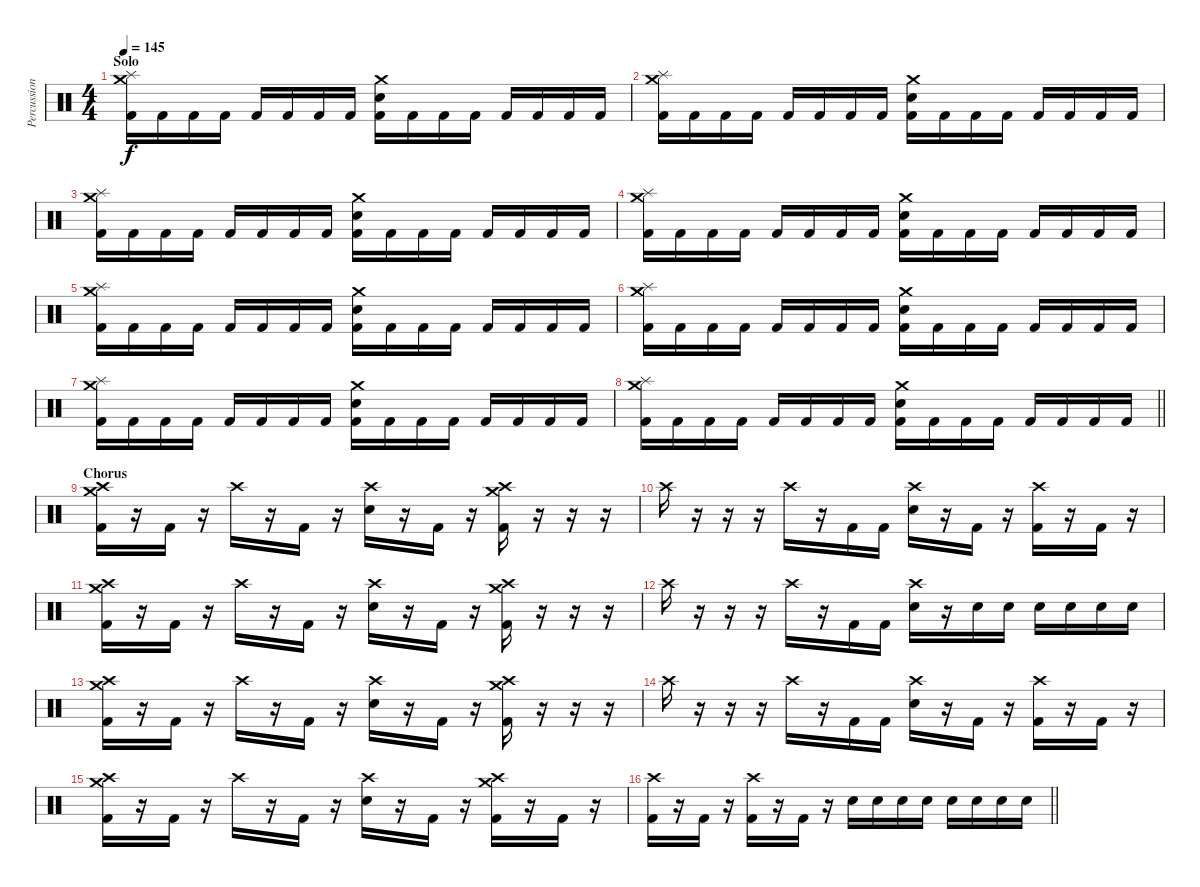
\track ("Percussion" "Percussion") {instrument percussion}
\staff {score}
\articulation defaults
\ts (4 4)
\section ("" "Solo")
\tempo 145
\clef neutral
\ks aminor
("Crash medium (hit)" "Splash (hit)" "Kick (hit) 2").16{dy f} "Kick (hit) 2".16 "Kick (hit) 2".16 "Kick (hit) 2".16 "Kick (hit) 2".16 "Kick (hit) 2".16 "Kick (hit) 2".16 "Kick (hit) 2".16 ("Crash medium (hit)" "Electric Snare (hit)" "Kick (hit) 2").16 "Kick (hit) 2".16 "Kick (hit) 2".16 "Kick (hit) 2".16 "Kick (hit) 2".16 "Kick (hit) 2".16 "Kick (hit) 2".16 "Kick (hit) 2".16 |
("Crash medium (hit)" "Splash (hit)" "Kick (hit) 2").16 "Kick (hit) 2".16 "Kick (hit) 2".16 "Kick (hit) 2".16 "Kick (hit) 2".16 "Kick (hit) 2".16 "Kick (hit) 2".16 "Kick (hit) 2".16 ("Crash medium (hit)" "Electric Snare (hit)" "Kick (hit) 2").16 "Kick (hit) 2".16 "Kick (hit) 2".16 "Kick (hit) 2".16 "Kick (hit) 2".16 "Kick (hit) 2".16 "Kick (hit) 2".16 "Kick (hit) 2".16 |
("Crash medium (hit)" "Splash (hit)" "Kick (hit) 2").16 "Kick (hit) 2".16 "Kick (hit) 2".16 "Kick (hit) 2".16 "Kick (hit) 2".16 "Kick (hit) 2".16 "Kick (hit) 2".16 "Kick (hit) 2".16 ("Crash medium (hit)" "Electric Snare (hit)" "Kick (hit) 2").16 "Kick (hit) 2".16 "Kick (hit) 2".16 "Kick (hit) 2".16 "Kick (hit) 2".16 "Kick (hit) 2".16 "Kick (hit) 2".16 "Kick (hit) 2".16 |
("Crash medium (hit)" "Splash (hit)" "Kick (hit) 2").16 "Kick (hit) 2".16 "Kick (hit) 2".16 "Kick (hit) 2".16 "Kick (hit) 2".16 "Kick (hit) 2".16 "Kick (hit) 2".16 "Kick (hit) 2".16 ("Crash medium (hit)" "Electric Snare (hit)" "Kick (hit) 2").16 "Kick (hit) 2".16 "Kick (hit) 2".16 "Kick (hit) 2".16 "Kick (hit) 2".16 "Kick (hit) 2".16 "Kick (hit) 2".16 "Kick (hit) 2".16 |
("Crash medium (hit)" "Splash (hit)" "Kick (hit) 2").16 "Kick (hit) 2".16 "Kick (hit) 2".16 "Kick (hit) 2".16 "Kick (hit) 2".16 "Kick (hit) 2".16 "Kick (hit) 2".16 "Kick (hit) 2".16 ("Crash medium (hit)" "Electric Snare (hit)" "Kick (hit) 2").16 "Kick (hit) 2".16 "Kick (hit) 2".16 "Kick (hit) 2".16 "Kick (hit) 2".16 "Kick (hit) 2".16 "Kick (hit) 2".16 "Kick (hit) 2".16 |
("Crash medium (hit)" "Splash (hit)" "Kick (hit) 2").16 "Kick (hit) 2".16 "Kick (hit) 2".16 "Kick (hit) 2".16 "Kick (hit) 2".16 "Kick (hit) 2".16 "Kick (hit) 2".16 "Kick (hit) 2".16 ("Crash medium (hit)" "Electric Snare (hit)" "Kick (hit) 2").16 "Kick (hit) 2".16 "Kick (hit) 2".16 "Kick (hit) 2".16 "Kick (hit) 2".16 "Kick (hit) 2".16 "Kick (hit) 2".16 "Kick (hit) 2".16 |
("Crash medium (hit)" "Splash (hit)" "Kick (hit) 2").16 "Kick (hit) 2".16 "Kick (hit) 2".16 "Kick (hit) 2".16 "Kick (hit) 2".16 "Kick (hit) 2".16 "Kick (hit) 2".16 "Kick (hit) 2".16 ("Crash medium (hit)" "Electric Snare (hit)" "Kick (hit) 2").16 "Kick (hit) 2".16 "Kick (hit) 2".16 "Kick (hit) 2".16 "Kick (hit) 2".16 "Kick (hit) 2".16 "Kick (hit) 2".16 "Kick (hit) 2".16 |
\barLineRight lightlight
("Crash medium (hit)" "Splash (hit)" "Kick (hit) 2").16 "Kick (hit) 2".16 "Kick (hit) 2".16 "Kick (hit) 2".16 "Kick (hit) 2".16 "Kick (hit) 2".16 "Kick (hit) 2".16 "Kick (hit) 2".16 ("Crash medium (hit)" "Electric Snare (hit)" "Kick (hit) 2").16 "Kick (hit) 2".16 "Kick (hit) 2".16 "Kick (hit) 2".16 "Kick (hit) 2".16 "Kick (hit) 2".16 "Kick (hit) 2".16 "Kick (hit) 2".16 |
\section ("" "Chorus")
("Crash high (hit)" "Crash medium (hit)" "Kick (hit) 2").16 r.16 "Kick (hit) 2".16 r.16 "Crash high (hit)".16 r.16 "Kick (hit) 2".16 r.16 ("Crash high (hit)" "Electric Snare (hit)").16 r.16 "Kick (hit) 2".16 r.16 ("Crash high (hit)" "Crash medium (hit)" "Kick (hit) 2").16 r.16 r.16 r.16 |
"Crash high (hit)".16 r.16 r.16 r.16 "Crash high (hit)".16 r.16 "Kick (hit) 2".16 "Kick (hit) 2".16 ("Crash high (hit)" "Electric Snare (hit)").16 r.16 "Kick (hit) 2".16 r.16 ("Crash high (hit)" "Kick (hit) 2").16 r.16 "Kick (hit) 2".16 r.16 |
("Crash high (hit)" "Crash medium (hit)" "Kick (hit) 2").16 r.16 "Kick (hit) 2".16 r.16 "Crash high (hit)".16 r.16 "Kick (hit) 2".16 r.16 ("Crash high (hit)" "Electric Snare (hit)").16 r.16 "Kick (hit) 2".16 r.16 ("Crash high (hit)" "Crash medium (hit)" "Kick (hit) 2").16 r.16 r.16 r.16 |
"Crash high (hit)".16 r.16 r.16 r.16 "Crash high (hit)".16 r.16 "Kick (hit) 2".16 "Kick (hit) 2".16 ("Crash high (hit)" "Electric Snare (hit)").16 r.16 "Electric Snare (hit)".16 "Electric Snare (hit)".16 "Electric Snare (hit)".16 "Electric Snare (hit)".16 "Electric Snare (hit)".16 "Electric Snare (hit)".16 |
("Crash high (hit)" "Crash medium (hit)" "Kick (hit) 2").16 r.16 "Kick (hit) 2".16 r.16 "Crash high (hit)".16 r.16 "Kick (hit) 2".16 r.16 ("Crash high (hit)" "Electric Snare (hit)").16 r.16 "Kick (hit) 2".16 r.16 ("Crash high (hit)" "Crash medium (hit)" "Kick (hit) 2").16 r.16 r.16 r.16 |
"Crash high (hit)".16 r.16 r.16 r.16 "Crash high (hit)".16 r.16 "Kick (hit) 2".16 "Kick (hit) 2".16 ("Crash high (hit)" "Electric Snare (hit)").16 r.16 "Kick (hit) 2".16 r.16 ("Crash high (hit)" "Kick (hit) 2").16 r.16 "Kick (hit) 2".16 r.16 |
("Crash high (hit)" "Crash medium (hit)" "Kick (hit) 2").16 r.16 "Kick (hit) 2".16 r.16 "Crash high (hit)".16 r.16 "Kick (hit) 2".16 r.16 ("Crash high (hit)" "Electric Snare (hit)").16 r.16 "Kick (hit) 2".16 r.16 ("Crash high (hit)" "Crash medium (hit)" "Kick (hit) 2").16 r.16 "Kick (hit) 2".16 r.16 |
\barLineRight lightlight
("Crash high (hit)" "Kick (hit) 2").16 r.16 "Kick (hit) 2".16 r.16 ("Crash high (hit)" "Kick (hit) 2").16 r.16 "Kick (hit) 2".16 r.16 "Electric Snare (hit)".16 "Electric Snare (hit)".16 "Electric Snare (hit)".16 "Electric Snare (hit)".16 "Electric Snare (hit)".16 "Electric Snare (hit)".16 "Electric Snare (hit)".16 "Electric Snare (hit)".16
